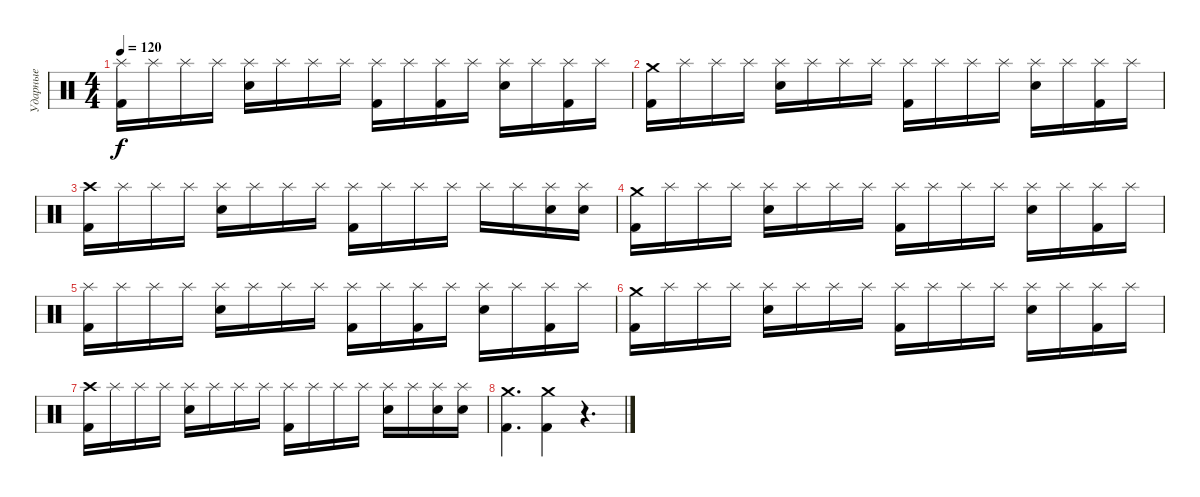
\track ("Ударные" "Ударные") {instrument percussion}
\staff {score}
\articulation defaults
\ts (4 4)
\tempo 120
\clef neutral
\ks c
("Splash (hit)" "Kick (hit) 2").16{dy f} "Splash (hit)".16 "Splash (hit)".16 "Splash (hit)".16 ("Splash (hit)" "Electric Snare (hit)").16 "Splash (hit)".16 "Splash (hit)".16 "Splash (hit)".16 ("Splash (hit)" "Kick (hit) 2").16 "Splash (hit)".16 ("Splash (hit)" "Kick (hit) 2").16 "Splash (hit)".16 ("Splash (hit)" "Electric Snare (hit)").16 "Splash (hit)".16 ("Splash (hit)" "Kick (hit) 2").16 "Splash (hit)".16 |
("Crash medium (hit)" "Kick (hit) 2").16 "Splash (hit)".16 "Splash (hit)".16 "Splash (hit)".16 ("Splash (hit)" "Electric Snare (hit)").16 "Splash (hit)".16 "Splash (hit)".16 "Splash (hit)".16 ("Splash (hit)" "Kick (hit) 2").16 "Splash (hit)".16 "Splash (hit)".16 "Splash (hit)".16 ("Splash (hit)" "Electric Snare (hit)").16 "Splash (hit)".16 ("Splash (hit)" "Kick (hit) 2").16 "Splash (hit)".16 |
("Crash high (hit)" "Kick (hit) 2").16 "Splash (hit)".16 "Splash (hit)".16 "Splash (hit)".16 ("Splash (hit)" "Electric Snare (hit)").16 "Splash (hit)".16 "Splash (hit)".16 "Splash (hit)".16 ("Splash (hit)" "Kick (hit) 2").16 "Splash (hit)".16 "Splash (hit)".16 "Splash (hit)".16 "Splash (hit)".16 "Splash (hit)".16 ("Splash (hit)" "Electric Snare (hit)").16 ("Splash (hit)" "Electric Snare (hit)").16 |
("Crash medium (hit)" "Kick (hit) 2").16 "Splash (hit)".16 "Splash (hit)".16 "Splash (hit)".16 ("Splash (hit)" "Electric Snare (hit)").16 "Splash (hit)".16 "Splash (hit)".16 "Splash (hit)".16 ("Splash (hit)" "Kick (hit) 2").16 "Splash (hit)".16 "Splash (hit)".16 "Splash (hit)".16 ("Splash (hit)" "Electric Snare (hit)").16 "Splash (hit)".16 ("Splash (hit)" "Kick (hit) 2").16 "Splash (hit)".16 |
("Splash (hit)" "Kick (hit) 2").16 "Splash (hit)".16 "Splash (hit)".16 "Splash (hit)".16 ("Splash (hit)" "Electric Snare (hit)").16 "Splash (hit)".16 "Splash (hit)".16 "Splash (hit)".16 ("Splash (hit)" "Kick (hit) 2").16 "Splash (hit)".16 ("Splash (hit)" "Kick (hit) 2").16 "Splash (hit)".16 ("Splash (hit)" "Electric Snare (hit)").16 "Splash (hit)".16 ("Splash (hit)" "Kick (hit) 2").16 "Splash (hit)".16 |
("Crash medium (hit)" "Kick (hit) 2").16 "Splash (hit)".16 "Splash (hit)".16 "Splash (hit)".16 ("Splash (hit)" "Electric Snare (hit)").16 "Splash (hit)".16 "Splash (hit)".16 "Splash (hit)".16 ("Splash (hit)" "Kick (hit) 2").16 "Splash (hit)".16 "Splash (hit)".16 "Splash (hit)".16 ("Splash (hit)" "Electric Snare (hit)").16 "Splash (hit)".16 ("Splash (hit)" "Kick (hit) 2").16 "Splash (hit)".16 |
("Crash high (hit)" "Kick (hit) 2").16 "Splash (hit)".16 "Splash (hit)".16 "Splash (hit)".16 ("Splash (hit)" "Electric Snare (hit)").16 "Splash (hit)".16 "Splash (hit)".16 "Splash (hit)".16 ("Splash (hit)" "Kick (hit) 2").16 "Splash (hit)".16 "Splash (hit)".16 "Splash (hit)".16 ("Splash (hit)" "Electric Snare (hit)").16 "Splash (hit)".16 ("Splash (hit)" "Electric Snare (hit)").16 ("Splash (hit)" "Electric Snare (hit)").16 |
("Crash medium (hit)" "Kick (hit) 2").4{d} ("Crash medium (hit)" "Kick (hit) 2").4 r.4{d}
